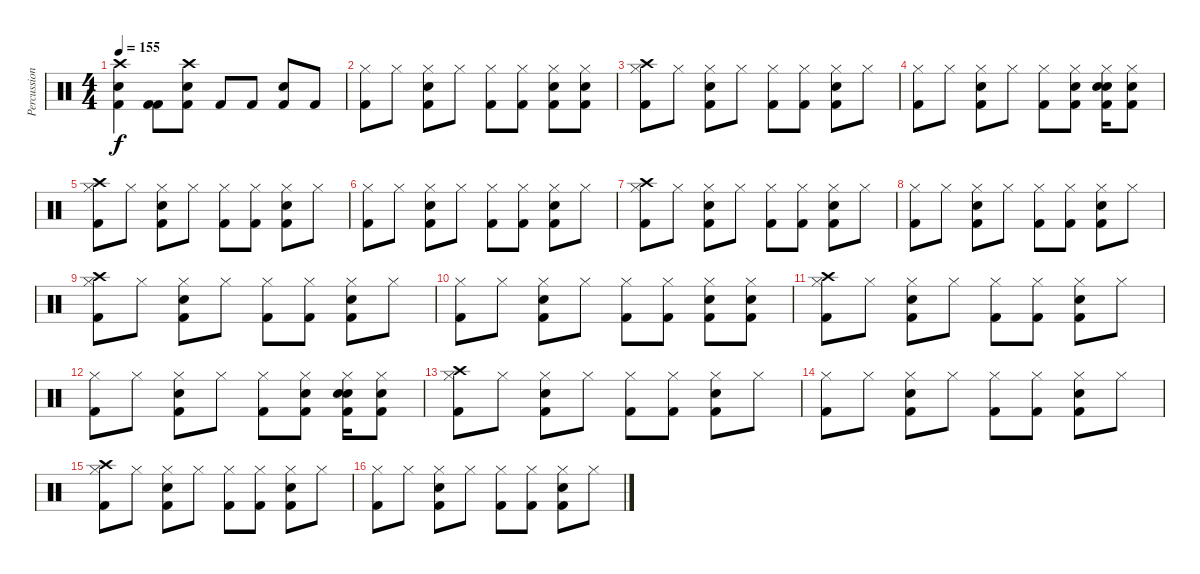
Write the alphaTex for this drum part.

\track ("Percussion" "Percussion") {instrument percussion}
\staff {score}
\articulation defaults
\ts (4 4)
\tempo 155
\clef neutral
\ks c
("Crash high (hit)" "Snare (hit) 2" "Kick (hit) 2").4{dy f} ("Kick (hit) 2" "Kick (hit) 2").8 ("Crash high (hit)" "Snare (hit) 2" "Kick (hit) 2").8 "Kick (hit) 2".8 "Kick (hit) 2".8 ("Snare (hit) 2" "Kick (hit) 2").8 "Kick (hit) 2".8 |
("Kick (hit) 2" "Hi-Hat (closed)").8 "Hi-Hat (closed)".8 ("Snare (hit) 2" "Kick (hit) 2" "Hi-Hat (closed)").8 "Hi-Hat (closed)".8 ("Kick (hit) 2" "Hi-Hat (closed)").8 ("Kick (hit) 2" "Hi-Hat (closed)").8 ("Snare (hit) 2" "Kick (hit) 2" "Hi-Hat (closed)").8 ("Snare (hit) 2" "Kick (hit) 2" "Hi-Hat (closed)").8 |
("Crash high (hit)" "Kick (hit) 2" "Hi-Hat (closed)").8 "Hi-Hat (closed)".8 ("Kick (hit) 2" "Snare (hit) 2" "Hi-Hat (closed)").8 "Hi-Hat (closed)".8 ("Kick (hit) 2" "Hi-Hat (closed)").8 ("Kick (hit) 2" "Hi-Hat (closed)").8 ("Kick (hit) 2" "Snare (hit) 2" "Hi-Hat (closed)").8 "Hi-Hat (closed)".8 |
("Kick (hit) 2" "Hi-Hat (closed)").8 "Hi-Hat (closed)".8 ("Kick (hit) 2" "Snare (hit) 2" "Hi-Hat (closed)").8 "Hi-Hat (closed)".8 ("Kick (hit) 2" "Hi-Hat (closed)").8 ("Kick (hit) 2" "Snare (hit) 2" "Hi-Hat (closed)").8 ("Kick (hit) 2" "Snare (hit) 2" "Snare (hit) 2" "Hi-Hat (closed)").16 ("Kick (hit) 2" "Snare (hit) 2" "Hi-Hat (closed)").8 |
("Crash high (hit)" "Kick (hit) 2" "Hi-Hat (closed)").8 "Hi-Hat (closed)".8 ("Kick (hit) 2" "Snare (hit) 2" "Hi-Hat (closed)").8 "Hi-Hat (closed)".8 ("Kick (hit) 2" "Hi-Hat (closed)").8 ("Kick (hit) 2" "Hi-Hat (closed)").8 ("Kick (hit) 2" "Snare (hit) 2" "Hi-Hat (closed)").8 "Hi-Hat (closed)".8 |
("Kick (hit) 2" "Hi-Hat (closed)").8 "Hi-Hat (closed)".8 ("Kick (hit) 2" "Snare (hit) 2" "Hi-Hat (closed)").8 "Hi-Hat (closed)".8 ("Kick (hit) 2" "Hi-Hat (closed)").8 ("Kick (hit) 2" "Hi-Hat (closed)").8 ("Kick (hit) 2" "Snare (hit) 2" "Hi-Hat (closed)").8 "Hi-Hat (closed)".8 |
("Crash high (hit)" "Kick (hit) 2" "Hi-Hat (closed)").8 "Hi-Hat (closed)".8 ("Kick (hit) 2" "Snare (hit) 2" "Hi-Hat (closed)").8 "Hi-Hat (closed)".8 ("Kick (hit) 2" "Hi-Hat (closed)").8 ("Kick (hit) 2" "Hi-Hat (closed)").8 ("Kick (hit) 2" "Snare (hit) 2" "Hi-Hat (closed)").8 "Hi-Hat (closed)".8 |
("Kick (hit) 2" "Hi-Hat (closed)").8 "Hi-Hat (closed)".8 ("Kick (hit) 2" "Snare (hit) 2" "Hi-Hat (closed)").8 "Hi-Hat (closed)".8 ("Kick (hit) 2" "Hi-Hat (closed)").8 ("Kick (hit) 2" "Hi-Hat (closed)").8 ("Kick (hit) 2" "Snare (hit) 2" "Hi-Hat (closed)").8 "Hi-Hat (closed)".8 |
("Crash high (hit)" "Kick (hit) 2" "Hi-Hat (closed)").8 "Hi-Hat (closed)".8 ("Kick (hit) 2" "Snare (hit) 2" "Hi-Hat (closed)").8 "Hi-Hat (closed)".8 ("Kick (hit) 2" "Hi-Hat (closed)").8 ("Kick (hit) 2" "Hi-Hat (closed)").8 ("Kick (hit) 2" "Snare (hit) 2" "Hi-Hat (closed)").8 "Hi-Hat (closed)".8 |
("Kick (hit) 2" "Hi-Hat (closed)").8 "Hi-Hat (closed)".8 ("Kick (hit) 2" "Snare (hit) 2" "Hi-Hat (closed)").8 "Hi-Hat (closed)".8 ("Kick (hit) 2" "Hi-Hat (closed)").8 ("Kick (hit) 2" "Hi-Hat (closed)").8 ("Kick (hit) 2" "Snare (hit) 2" "Hi-Hat (closed)").8 ("Kick (hit) 2" "Snare (hit) 2" "Hi-Hat (closed)").8 |
("Crash high (hit)" "Kick (hit) 2" "Hi-Hat (closed)").8 "Hi-Hat (closed)".8 ("Kick (hit) 2" "Snare (hit) 2" "Hi-Hat (closed)").8 "Hi-Hat (closed)".8 ("Kick (hit) 2" "Hi-Hat (closed)").8 ("Kick (hit) 2" "Hi-Hat (closed)").8 ("Kick (hit) 2" "Snare (hit) 2" "Hi-Hat (closed)").8 "Hi-Hat (closed)".8 |
("Kick (hit) 2" "Hi-Hat (closed)").8 "Hi-Hat (closed)".8 ("Kick (hit) 2" "Snare (hit) 2" "Hi-Hat (closed)").8 "Hi-Hat (closed)".8 ("Kick (hit) 2" "Hi-Hat (closed)").8 ("Kick (hit) 2" "Snare (hit) 2" "Hi-Hat (closed)").8 ("Kick (hit) 2" "Snare (hit) 2" "Snare (hit) 2" "Hi-Hat (closed)").16 ("Kick (hit) 2" "Snare (hit) 2" "Hi-Hat (closed)").8 |
("Crash high (hit)" "Kick (hit) 2" "Hi-Hat (closed)").8 "Hi-Hat (closed)".8 ("Kick (hit) 2" "Snare (hit) 2" "Hi-Hat (closed)").8 "Hi-Hat (closed)".8 ("Kick (hit) 2" "Hi-Hat (closed)").8 ("Kick (hit) 2" "Hi-Hat (closed)").8 ("Kick (hit) 2" "Snare (hit) 2" "Hi-Hat (closed)").8 "Hi-Hat (closed)".8 |
("Kick (hit) 2" "Hi-Hat (closed)").8 "Hi-Hat (closed)".8 ("Kick (hit) 2" "Snare (hit) 2" "Hi-Hat (closed)").8 "Hi-Hat (closed)".8 ("Kick (hit) 2" "Hi-Hat (closed)").8 ("Kick (hit) 2" "Hi-Hat (closed)").8 ("Kick (hit) 2" "Snare (hit) 2" "Hi-Hat (closed)").8 "Hi-Hat (closed)".8 |
("Crash high (hit)" "Kick (hit) 2" "Hi-Hat (closed)").8 "Hi-Hat (closed)".8 ("Kick (hit) 2" "Snare (hit) 2" "Hi-Hat (closed)").8 "Hi-Hat (closed)".8 ("Kick (hit) 2" "Hi-Hat (closed)").8 ("Kick (hit) 2" "Hi-Hat (closed)").8 ("Kick (hit) 2" "Snare (hit) 2" "Hi-Hat (closed)").8 "Hi-Hat (closed)".8 |
("Kick (hit) 2" "Hi-Hat (closed)").8 "Hi-Hat (closed)".8 ("Kick (hit) 2" "Snare (hit) 2" "Hi-Hat (closed)").8 "Hi-Hat (closed)".8 ("Kick (hit) 2" "Hi-Hat (closed)").8 ("Kick (hit) 2" "Hi-Hat (closed)").8 ("Kick (hit) 2" "Snare (hit) 2" "Hi-Hat (closed)").8 "Hi-Hat (closed)".8
